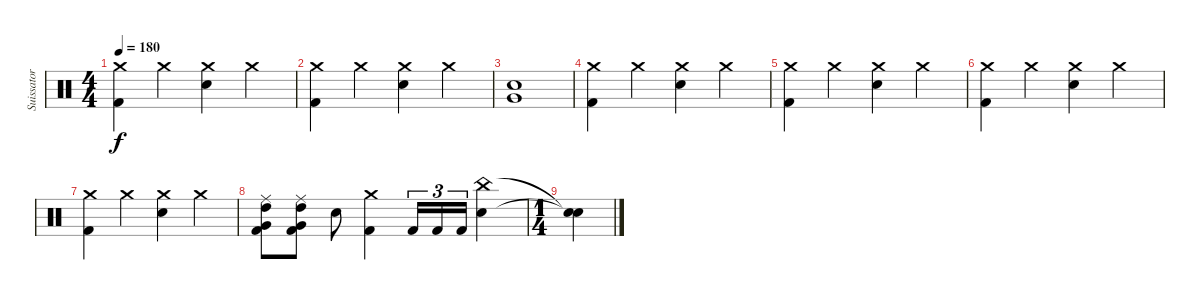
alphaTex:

\track ("Suissator" "Suissator") {instrument percussion}
\staff {score}
\articulation defaults
\ts (4 4)
\tempo 180
\clef neutral
\ks c
("Kick (hit) 2" "Crash medium (hit)").4{dy f} "Crash medium (hit)".4 ("Electric Snare (hit)" "Crash medium (hit)").4 "Crash medium (hit)".4 |
("Kick (hit) 2" "Crash medium (hit)").4 "Crash medium (hit)".4 ("Electric Snare (hit)" "Crash medium (hit)").4 "Crash medium (hit)".4 |
("Very Low Tom (hit)" "Electric Snare (hit)").1 |
("Kick (hit) 2" "Crash medium (hit)").4 "Crash medium (hit)".4 ("Electric Snare (hit)" "Crash medium (hit)").4 "Crash medium (hit)".4 |
("Kick (hit) 2" "Crash medium (hit)").4 "Crash medium (hit)".4 ("Electric Snare (hit)" "Crash medium (hit)").4 "Crash medium (hit)".4 |
("Kick (hit) 2" "Crash medium (hit)").4 "Crash medium (hit)".4 ("Electric Snare (hit)" "Crash medium (hit)").4 "Crash medium (hit)".4 |
("Kick (hit) 2" "Crash medium (hit)").4 "Crash medium (hit)".4 ("Electric Snare (hit)" "Crash medium (hit)").4 "Crash medium (hit)".4 |
("Kick (hit) 2" "Very Low Tom (hit)" "High Tom (hit)" "Ride (middle)").8 ("Kick (hit) 2" "Very Low Tom (hit)" "High Tom (hit)" "Ride (middle)").8 "Electric Snare (hit)".8 ("Kick (hit) 2" "Crash medium (hit)").4 "Kick (hit) 2".16{tu (3 2)} "Kick (hit) 2".16{tu (3 2)} "Kick (hit) 2".16{tu (3 2)} ("Electric Snare (hit)" "China (hit)").4 |
\ts (1 4)
("Snare (hit)"{t} "Snare (hit)"{t}).4
